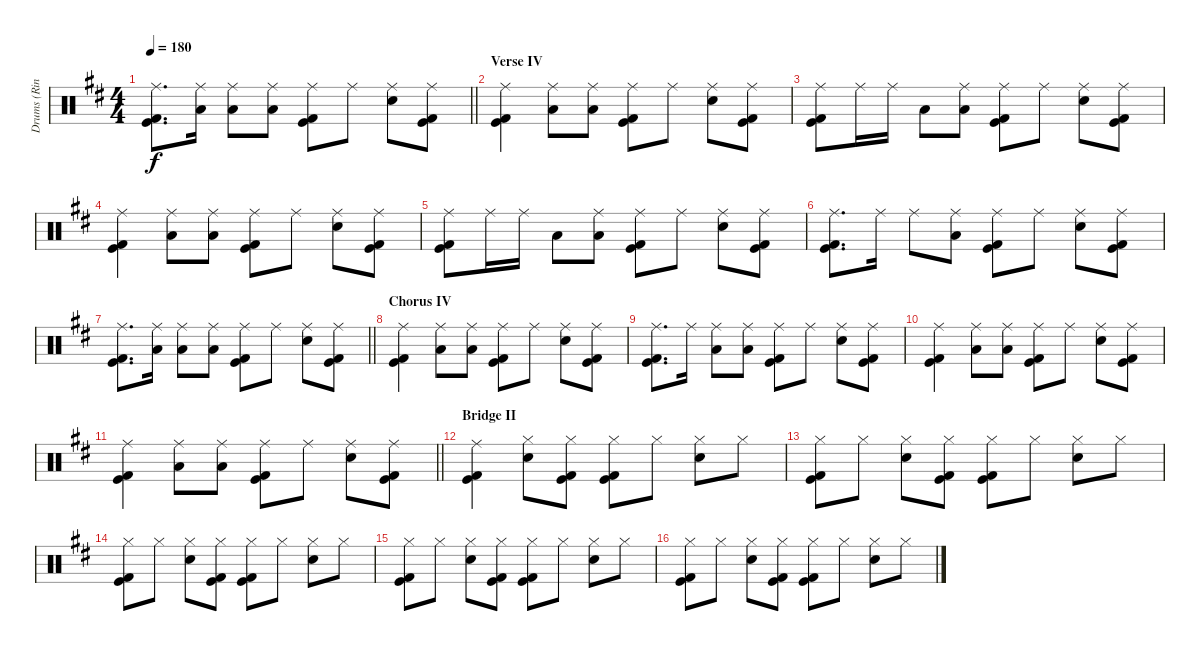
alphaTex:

\track ("Drums (Ringo)" "Drums (Rin") {instrument percussion}
\staff {score}
\articulation defaults
\ts (4 4)
\tempo 180
\clef neutral
\barLineRight lightlight
\ks d
("Ride (middle)" "Kick (hit) 2" "Kick (hit)").8{d dy f} ("Ride (middle)" "Low Tom (hit)").16 ("Ride (middle)" "Low Tom (hit)").8 ("Ride (middle)" "Low Tom (hit)").8 ("Ride (middle)" "Kick (hit) 2" "Kick (hit)").8 "Ride (middle)".8 ("Ride (middle)" "Electric Snare (hit)").8 ("Ride (middle)" "Kick (hit) 2" "Kick (hit)").8 |
\section ("" "Verse IV")
("Ride (middle)" "Kick (hit) 2" "Kick (hit)").4 ("Ride (middle)" "Low Tom (hit)").8 ("Ride (middle)" "Low Tom (hit)").8 ("Ride (middle)" "Kick (hit) 2" "Kick (hit)").8 "Ride (middle)".8 ("Ride (middle)" "Electric Snare (hit)").8 ("Ride (middle)" "Kick (hit) 2" "Kick (hit)").8 |
("Ride (middle)" "Kick (hit) 2" "Kick (hit)").8 "Ride (middle)".16 "Ride (middle)".16 "Low Tom (hit)".8 ("Ride (middle)" "Low Tom (hit)").8 ("Ride (middle)" "Kick (hit) 2" "Kick (hit)").8 "Ride (middle)".8 ("Ride (middle)" "Electric Snare (hit)").8 ("Ride (middle)" "Kick (hit) 2" "Kick (hit)").8 |
("Ride (middle)" "Kick (hit) 2" "Kick (hit)").4 ("Ride (middle)" "Low Tom (hit)").8 ("Ride (middle)" "Low Tom (hit)").8 ("Ride (middle)" "Kick (hit) 2" "Kick (hit)").8 "Ride (middle)".8 ("Ride (middle)" "Electric Snare (hit)").8 ("Ride (middle)" "Kick (hit) 2" "Kick (hit)").8 |
("Ride (middle)" "Kick (hit) 2" "Kick (hit)").8 "Ride (middle)".16 "Ride (middle)".16 "Low Tom (hit)".8 ("Ride (middle)" "Low Tom (hit)").8 ("Ride (middle)" "Kick (hit) 2" "Kick (hit)").8 "Ride (middle)".8 ("Ride (middle)" "Electric Snare (hit)").8 ("Ride (middle)" "Kick (hit) 2" "Kick (hit)").8 |
("Ride (middle)" "Kick (hit) 2" "Kick (hit)").8{d} "Ride (middle)".16 "Ride (middle)".8 ("Ride (middle)" "Low Tom (hit)").8 ("Ride (middle)" "Kick (hit) 2" "Kick (hit)").8 "Ride (middle)".8 ("Ride (middle)" "Electric Snare (hit)").8 ("Ride (middle)" "Kick (hit) 2" "Kick (hit)").8 |
\barLineRight lightlight
("Ride (middle)" "Kick (hit) 2" "Kick (hit)").8{d} ("Ride (middle)" "Low Tom (hit)").16 ("Ride (middle)" "Low Tom (hit)").8 ("Ride (middle)" "Low Tom (hit)").8 ("Ride (middle)" "Kick (hit) 2" "Kick (hit)").8 "Ride (middle)".8 ("Ride (middle)" "Electric Snare (hit)").8 ("Ride (middle)" "Kick (hit) 2" "Kick (hit)").8 |
\section ("" "Chorus IV")
("Ride (middle)" "Kick (hit) 2" "Kick (hit)").4 ("Ride (middle)" "Low Tom (hit)").8 ("Ride (middle)" "Low Tom (hit)").8 ("Ride (middle)" "Kick (hit) 2" "Kick (hit)").8 "Ride (middle)".8 ("Ride (middle)" "Electric Snare (hit)").8 ("Ride (middle)" "Kick (hit) 2" "Kick (hit)").8 |
("Ride (middle)" "Kick (hit) 2" "Kick (hit)").8{d} "Ride (middle)".16 ("Ride (middle)" "Low Tom (hit)").8 ("Ride (middle)" "Low Tom (hit)").8 ("Ride (middle)" "Kick (hit) 2" "Kick (hit)").8 "Ride (middle)".8 ("Ride (middle)" "Electric Snare (hit)").8 ("Ride (middle)" "Kick (hit) 2" "Kick (hit)").8 |
("Ride (middle)" "Kick (hit) 2" "Kick (hit)").4 ("Ride (middle)" "Low Tom (hit)").8 ("Ride (middle)" "Low Tom (hit)").8 ("Ride (middle)" "Kick (hit) 2" "Kick (hit)").8 "Ride (middle)".8 ("Ride (middle)" "Electric Snare (hit)").8 ("Ride (middle)" "Kick (hit) 2" "Kick (hit)").8 |
\barLineRight lightlight
("Ride (middle)" "Kick (hit) 2" "Kick (hit)").4 ("Ride (middle)" "Low Tom (hit)").8 ("Ride (middle)" "Low Tom (hit)").8 ("Ride (middle)" "Kick (hit) 2" "Kick (hit)").8 "Ride (middle)".8 ("Ride (middle)" "Electric Snare (hit)").8 ("Ride (middle)" "Kick (hit) 2" "Kick (hit)").8 |
\section ("" "Bridge II")
("Ride (middle)" "Kick (hit) 2" "Kick (hit)").4 ("Hi-Hat (closed)" "Electric Snare (hit)").8 ("Hi-Hat (closed)" "Kick (hit) 2" "Kick (hit)").8 ("Hi-Hat (closed)" "Kick (hit) 2" "Kick (hit)").8 "Hi-Hat (closed)".8 ("Hi-Hat (closed)" "Electric Snare (hit)").8 "Hi-Hat (closed)".8 |
("Hi-Hat (closed)" "Kick (hit) 2" "Kick (hit)").8 "Hi-Hat (closed)".8 ("Hi-Hat (closed)" "Electric Snare (hit)").8 ("Hi-Hat (closed)" "Kick (hit) 2" "Kick (hit)").8 ("Hi-Hat (closed)" "Kick (hit) 2" "Kick (hit)").8 "Hi-Hat (closed)".8 ("Hi-Hat (closed)" "Electric Snare (hit)").8 "Hi-Hat (closed)".8 |
("Hi-Hat (closed)" "Kick (hit) 2" "Kick (hit)").8 "Hi-Hat (closed)".8 ("Hi-Hat (closed)" "Electric Snare (hit)").8 ("Hi-Hat (closed)" "Kick (hit) 2" "Kick (hit)").8 ("Hi-Hat (closed)" "Kick (hit) 2" "Kick (hit)").8 "Hi-Hat (closed)".8 ("Hi-Hat (closed)" "Electric Snare (hit)").8 "Hi-Hat (closed)".8 |
("Hi-Hat (closed)" "Kick (hit) 2" "Kick (hit)").8 "Hi-Hat (closed)".8 ("Hi-Hat (closed)" "Electric Snare (hit)").8 ("Hi-Hat (closed)" "Kick (hit) 2" "Kick (hit)").8 ("Hi-Hat (closed)" "Kick (hit) 2" "Kick (hit)").8 "Hi-Hat (closed)".8 ("Hi-Hat (closed)" "Electric Snare (hit)").8 "Hi-Hat (closed)".8 |
("Hi-Hat (closed)" "Kick (hit) 2" "Kick (hit)").8 "Hi-Hat (closed)".8 ("Hi-Hat (closed)" "Electric Snare (hit)").8 ("Hi-Hat (closed)" "Kick (hit) 2" "Kick (hit)").8 ("Hi-Hat (closed)" "Kick (hit) 2" "Kick (hit)").8 "Hi-Hat (closed)".8 ("Hi-Hat (closed)" "Electric Snare (hit)").8 "Hi-Hat (closed)".8
